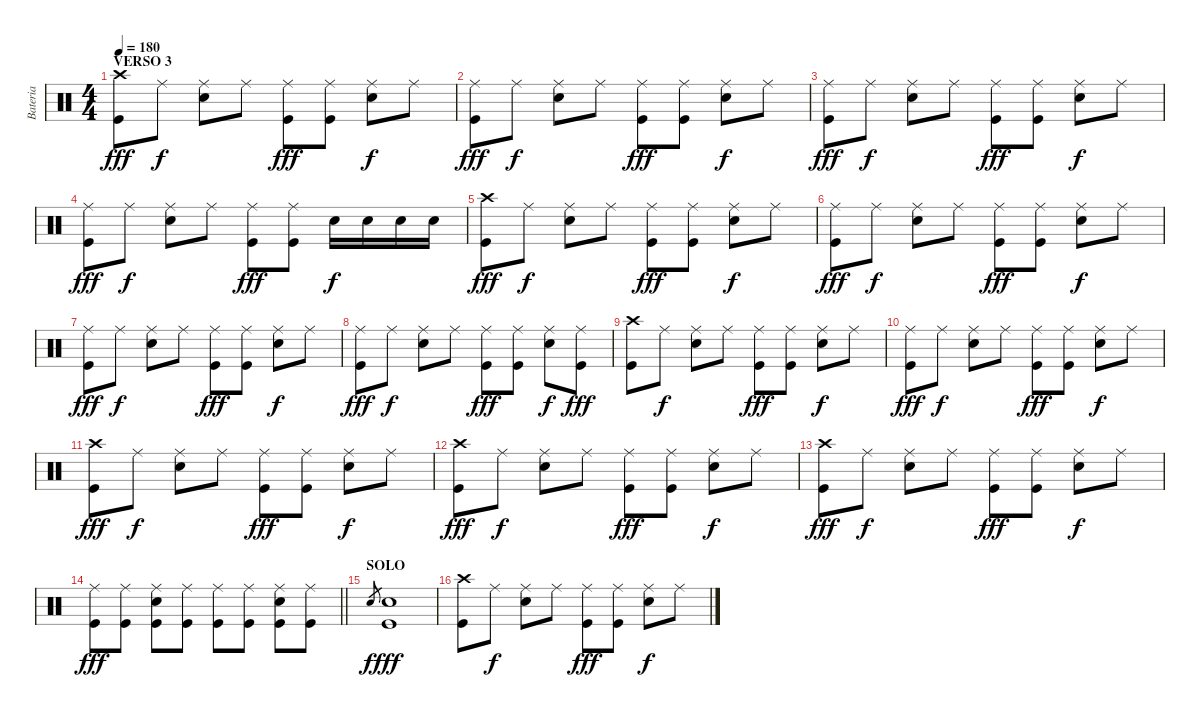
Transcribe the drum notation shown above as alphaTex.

\track ("Bateria" "Bateria") {instrument percussion}
\staff {score}
\articulation defaults
\ts (4 4)
\section ("" "VERSO 3")
\tempo 180
\clef neutral
\ks c
("Crash high (hit)" "Kick (hit)").8{dy fff} "Ride (middle)".8{dy f} ("Ride (middle)" "Snare (hit) 2").8 "Ride (middle)".8 ("Ride (middle)" "Kick (hit)").8{dy fff} ("Ride (middle)" "Kick (hit)").8 ("Ride (middle)" "Snare (hit) 2").8{dy f} "Ride (middle)".8 |
("Ride (middle)" "Kick (hit)").8{dy fff} "Ride (middle)".8{dy f} ("Ride (middle)" "Snare (hit) 2").8 "Ride (middle)".8 ("Ride (middle)" "Kick (hit)").8{dy fff} ("Ride (middle)" "Kick (hit)").8 ("Ride (middle)" "Snare (hit) 2").8{dy f} "Ride (middle)".8 |
("Ride (middle)" "Kick (hit)").8{dy fff} "Ride (middle)".8{dy f} ("Ride (middle)" "Snare (hit) 2").8 "Ride (middle)".8 ("Ride (middle)" "Kick (hit)").8{dy fff} ("Ride (middle)" "Kick (hit)").8 ("Ride (middle)" "Snare (hit) 2").8{dy f} "Ride (middle)".8 |
("Ride (middle)" "Kick (hit)").8{dy fff} "Ride (middle)".8{dy f} ("Ride (middle)" "Snare (hit) 2").8 "Ride (middle)".8 ("Ride (middle)" "Kick (hit)").8{dy fff} ("Ride (middle)" "Kick (hit)").8 "Snare (hit) 2".16{dy f} "Snare (hit) 2".16 "Snare (hit) 2".16 "Snare (hit) 2".16 |
("Crash high (hit)" "Kick (hit)").8{dy fff} "Ride (middle)".8{dy f} ("Ride (middle)" "Snare (hit) 2").8 "Ride (middle)".8 ("Ride (middle)" "Kick (hit)").8{dy fff} ("Ride (middle)" "Kick (hit)").8 ("Ride (middle)" "Snare (hit) 2").8{dy f} "Ride (middle)".8 |
("Ride (middle)" "Kick (hit)").8{dy fff} "Ride (middle)".8{dy f} ("Ride (middle)" "Snare (hit) 2").8 "Ride (middle)".8 ("Ride (middle)" "Kick (hit)").8{dy fff} ("Ride (middle)" "Kick (hit)").8 ("Ride (middle)" "Snare (hit) 2").8{dy f} "Ride (middle)".8 |
("Ride (middle)" "Kick (hit)").8{dy fff} "Ride (middle)".8{dy f} ("Ride (middle)" "Snare (hit) 2").8 "Ride (middle)".8 ("Ride (middle)" "Kick (hit)").8{dy fff} ("Ride (middle)" "Kick (hit)").8 ("Ride (middle)" "Snare (hit) 2").8{dy f} "Ride (middle)".8 |
("Ride (middle)" "Kick (hit)").8{dy fff} "Ride (middle)".8{dy f} ("Ride (middle)" "Snare (hit) 2").8 "Ride (middle)".8 ("Ride (middle)" "Kick (hit)").8{dy fff} ("Ride (middle)" "Kick (hit)").8 ("Ride (middle)" "Snare (hit) 2").8{dy f} ("Ride (middle)" "Kick (hit)").8{dy fff} |
("Crash high (hit)" "Kick (hit)").8 "Ride (middle)".8{dy f} ("Ride (middle)" "Snare (hit) 2").8 "Ride (middle)".8 ("Ride (middle)" "Kick (hit)").8{dy fff} ("Ride (middle)" "Kick (hit)").8 ("Ride (middle)" "Snare (hit) 2").8{dy f} "Ride (middle)".8 |
("Ride (middle)" "Kick (hit)").8{dy fff} "Ride (middle)".8{dy f} ("Ride (middle)" "Snare (hit) 2").8 "Ride (middle)".8 ("Ride (middle)" "Kick (hit)").8{dy fff} ("Ride (middle)" "Kick (hit)").8 ("Ride (middle)" "Snare (hit) 2").8{dy f} "Ride (middle)".8 |
("Crash high (hit)" "Kick (hit)").8{dy fff} "Ride (middle)".8{dy f} ("Ride (middle)" "Snare (hit) 2").8 "Ride (middle)".8 ("Ride (middle)" "Kick (hit)").8{dy fff} ("Ride (middle)" "Kick (hit)").8 ("Ride (middle)" "Snare (hit) 2").8{dy f} "Ride (middle)".8 |
("Crash high (hit)" "Kick (hit)").8{dy fff} "Ride (middle)".8{dy f} ("Ride (middle)" "Snare (hit) 2").8 "Ride (middle)".8 ("Ride (middle)" "Kick (hit)").8{dy fff} ("Ride (middle)" "Kick (hit)").8 ("Ride (middle)" "Snare (hit) 2").8{dy f} "Ride (middle)".8 |
("Crash high (hit)" "Kick (hit)").8{dy fff} "Ride (middle)".8{dy f} ("Ride (middle)" "Snare (hit) 2").8 "Ride (middle)".8 ("Ride (middle)" "Kick (hit)").8{dy fff} ("Ride (middle)" "Kick (hit)").8 ("Ride (middle)" "Snare (hit) 2").8{dy f} "Ride (middle)".8 |
\barLineRight lightlight
("Ride (middle)" "Kick (hit)").8{dy fff} ("Ride (middle)" "Kick (hit)").8 ("Ride (middle)" "Snare (hit) 2" "Kick (hit)").8 ("Ride (middle)" "Kick (hit)").8 ("Ride (middle)" "Kick (hit)").8 ("Ride (middle)" "Kick (hit)").8 ("Ride (middle)" "Snare (hit) 2" "Kick (hit)").8 ("Ride (middle)" "Kick (hit)").8 |
\section ("" "SOLO")
"Snare (hit) 2".8{gr dy f} ("Snare (hit) 2" "Kick (hit)").1{dy fff} |
("Crash high (hit)" "Kick (hit)").8 "Ride (middle)".8{dy f} ("Ride (middle)" "Snare (hit) 2").8 "Ride (middle)".8 ("Ride (middle)" "Kick (hit)").8{dy fff} ("Ride (middle)" "Kick (hit)").8 ("Ride (middle)" "Snare (hit) 2").8{dy f} "Ride (middle)".8
